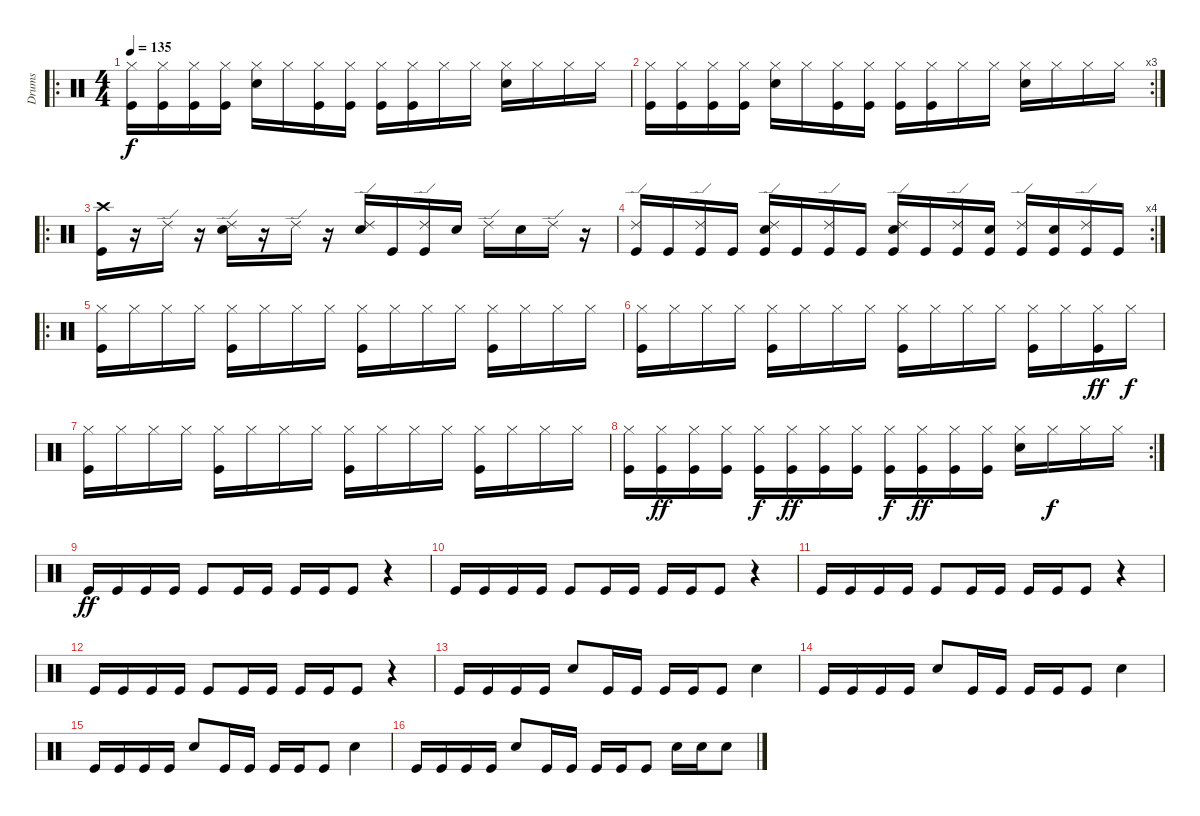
\track ("Drums" "Drums") {instrument percussion}
\staff {score}
\articulation defaults
\ro
\ts (4 4)
\tempo 135
\clef neutral
\ks c
("Hi-Hat (closed)" "Kick (hit)").16{dy f} ("Hi-Hat (closed)" "Kick (hit)").16 ("Hi-Hat (closed)" "Kick (hit)").16 ("Hi-Hat (closed)" "Kick (hit)").16 ("Hi-Hat (closed)" "Snare (hit) 2").16 "Hi-Hat (closed)".16 ("Hi-Hat (closed)" "Kick (hit)").16 ("Hi-Hat (closed)" "Kick (hit)").16 ("Hi-Hat (closed)" "Kick (hit)").16 ("Hi-Hat (closed)" "Kick (hit)").16 "Hi-Hat (closed)".16 "Hi-Hat (closed)".16 ("Hi-Hat (closed)" "Snare (hit) 2").16 "Hi-Hat (closed)".16 "Hi-Hat (closed)".16 "Hi-Hat (closed)".16 |
\rc 3
("Hi-Hat (closed)" "Kick (hit)").16 ("Hi-Hat (closed)" "Kick (hit)").16 ("Hi-Hat (closed)" "Kick (hit)").16 ("Hi-Hat (closed)" "Kick (hit)").16 ("Hi-Hat (closed)" "Snare (hit) 2").16 "Hi-Hat (closed)".16 ("Hi-Hat (closed)" "Kick (hit)").16 ("Hi-Hat (closed)" "Kick (hit)").16 ("Hi-Hat (closed)" "Kick (hit)").16 ("Hi-Hat (closed)" "Kick (hit)").16 "Hi-Hat (closed)".16 "Hi-Hat (closed)".16 ("Hi-Hat (closed)" "Snare (hit) 2").16 "Hi-Hat (closed)".16 "Hi-Hat (closed)".16 "Hi-Hat (closed)".16 |
\ro
("Crash high (hit)" "Kick (hit)").16 r.16 "Ride (edge) 2".16 r.16 ("Ride (edge) 2" "Snare (hit) 2").16 r.16 "Ride (edge) 2".16 r.16 ("Ride (edge) 2" "Snare (hit) 2").16 "Kick (hit)".16 ("Ride (edge) 2" "Kick (hit)").16 "Snare (hit) 2".16 "Ride (edge) 2".16 "Snare (hit) 2".16 "Ride (edge) 2".16 r.16 |
\rc 4
("Ride (edge) 2" "Kick (hit)").16 "Kick (hit)".16 ("Ride (edge) 2" "Kick (hit)").16 "Kick (hit)".16 ("Ride (edge) 2" "Snare (hit) 2" "Kick (hit)").16 "Kick (hit)".16 ("Ride (edge) 2" "Kick (hit)").16 "Kick (hit)".16 ("Ride (edge) 2" "Snare (hit) 2" "Kick (hit)").16 "Kick (hit)".16 ("Ride (edge) 2" "Kick (hit)").16 ("Snare (hit) 2" "Kick (hit)").16 ("Ride (edge) 2" "Kick (hit)").16 ("Snare (hit) 2" "Kick (hit)").16 ("Ride (edge) 2" "Kick (hit)").16 "Kick (hit)".16 |
\ro
("Hi-Hat (closed)" "Kick (hit)").16 "Hi-Hat (closed)".16 "Hi-Hat (closed)".16 "Hi-Hat (closed)".16 ("Hi-Hat (closed)" "Kick (hit)").16 "Hi-Hat (closed)".16 "Hi-Hat (closed)".16 "Hi-Hat (closed)".16 ("Hi-Hat (closed)" "Kick (hit)").16 "Hi-Hat (closed)".16 "Hi-Hat (closed)".16 "Hi-Hat (closed)".16 ("Hi-Hat (closed)" "Kick (hit)").16 "Hi-Hat (closed)".16 "Hi-Hat (closed)".16 "Hi-Hat (closed)".16 |
("Hi-Hat (closed)" "Kick (hit)").16 "Hi-Hat (closed)".16 "Hi-Hat (closed)".16 "Hi-Hat (closed)".16 ("Hi-Hat (closed)" "Kick (hit)").16 "Hi-Hat (closed)".16 "Hi-Hat (closed)".16 "Hi-Hat (closed)".16 ("Hi-Hat (closed)" "Kick (hit)").16 "Hi-Hat (closed)".16 "Hi-Hat (closed)".16 "Hi-Hat (closed)".16 ("Hi-Hat (closed)" "Kick (hit)").16 "Hi-Hat (closed)".16 ("Hi-Hat (closed)" "Kick (hit)").16{dy ff} "Hi-Hat (closed)".16{dy f} |
("Hi-Hat (closed)" "Kick (hit)").16 "Hi-Hat (closed)".16 "Hi-Hat (closed)".16 "Hi-Hat (closed)".16 ("Hi-Hat (closed)" "Kick (hit)").16 "Hi-Hat (closed)".16 "Hi-Hat (closed)".16 "Hi-Hat (closed)".16 ("Hi-Hat (closed)" "Kick (hit)").16 "Hi-Hat (closed)".16 "Hi-Hat (closed)".16 "Hi-Hat (closed)".16 ("Hi-Hat (closed)" "Kick (hit)").16 "Hi-Hat (closed)".16 "Hi-Hat (closed)".16 "Hi-Hat (closed)".16 |
\rc 2
("Hi-Hat (closed)" "Kick (hit)").16 ("Hi-Hat (closed)" "Kick (hit)").16{dy ff} ("Hi-Hat (closed)" "Kick (hit)").16 ("Hi-Hat (closed)" "Kick (hit)").16 ("Hi-Hat (closed)" "Kick (hit)").16{dy f} ("Hi-Hat (closed)" "Kick (hit)").16{dy ff} ("Hi-Hat (closed)" "Kick (hit)").16 ("Hi-Hat (closed)" "Kick (hit)").16 ("Hi-Hat (closed)" "Kick (hit)").16{dy f} ("Hi-Hat (closed)" "Kick (hit)").16{dy ff} ("Hi-Hat (closed)" "Kick (hit)").16 ("Hi-Hat (closed)" "Kick (hit)").16 ("Hi-Hat (closed)" "Snare (hit) 2").16 "Hi-Hat (closed)".16{dy f} "Hi-Hat (closed)".16 "Hi-Hat (closed)".16 |
"Kick (hit)".16{dy ff} "Kick (hit)".16 "Kick (hit)".16 "Kick (hit)".16 "Kick (hit)".8 "Kick (hit)".16 "Kick (hit)".16 "Kick (hit)".16 "Kick (hit)".16 "Kick (hit)".8 r.4 |
"Kick (hit)".16 "Kick (hit)".16 "Kick (hit)".16 "Kick (hit)".16 "Kick (hit)".8 "Kick (hit)".16 "Kick (hit)".16 "Kick (hit)".16 "Kick (hit)".16 "Kick (hit)".8 r.4 |
"Kick (hit)".16 "Kick (hit)".16 "Kick (hit)".16 "Kick (hit)".16 "Kick (hit)".8 "Kick (hit)".16 "Kick (hit)".16 "Kick (hit)".16 "Kick (hit)".16 "Kick (hit)".8 r.4 |
"Kick (hit)".16 "Kick (hit)".16 "Kick (hit)".16 "Kick (hit)".16 "Kick (hit)".8 "Kick (hit)".16 "Kick (hit)".16 "Kick (hit)".16 "Kick (hit)".16 "Kick (hit)".8 r.4 |
"Kick (hit)".16 "Kick (hit)".16 "Kick (hit)".16 "Kick (hit)".16 "Snare (hit) 2".8 "Kick (hit)".16 "Kick (hit)".16 "Kick (hit)".16 "Kick (hit)".16 "Kick (hit)".8 "Snare (hit) 2".4 |
"Kick (hit)".16 "Kick (hit)".16 "Kick (hit)".16 "Kick (hit)".16 "Snare (hit) 2".8 "Kick (hit)".16 "Kick (hit)".16 "Kick (hit)".16 "Kick (hit)".16 "Kick (hit)".8 "Snare (hit) 2".4 |
"Kick (hit)".16 "Kick (hit)".16 "Kick (hit)".16 "Kick (hit)".16 "Snare (hit) 2".8 "Kick (hit)".16 "Kick (hit)".16 "Kick (hit)".16 "Kick (hit)".16 "Kick (hit)".8 "Snare (hit) 2".4 |
"Kick (hit)".16 "Kick (hit)".16 "Kick (hit)".16 "Kick (hit)".16 "Snare (hit) 2".8 "Kick (hit)".16 "Kick (hit)".16 "Kick (hit)".16 "Kick (hit)".16 "Kick (hit)".8 "Snare (hit) 2".16 "Snare (hit) 2".16 "Snare (hit) 2".8
